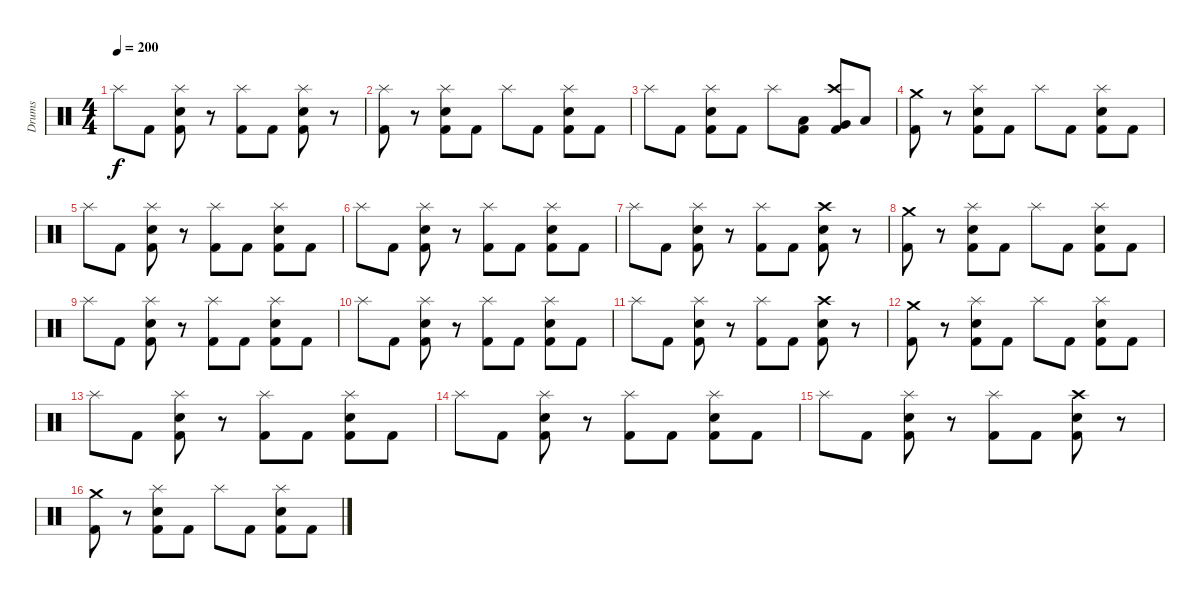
\track ("Drums" "Drums") {instrument percussion}
\staff {score}
\articulation defaults
\ts (4 4)
\tempo 200
\clef neutral
\ks c "Splash (hit)".8{dy f} "Kick (hit) 2".8
("Splash (hit)" "Snare (hit) 2" "Kick (hit) 2").8 r.8 ("Splash (hit)" "Kick (hit) 2").8 "Kick (hit) 2".8 ("Splash (hit)" "Snare (hit) 2" "Kick (hit) 2").8 r.8 |
("Splash (hit)" "Kick (hit) 2").8 r.8 ("Splash (hit)" "Snare (hit) 2" "Kick (hit) 2").8 "Kick (hit) 2".8 "Splash (hit)".8 "Kick (hit) 2".8 ("Splash (hit)" "Snare (hit) 2" "Kick (hit) 2").8 "Kick (hit) 2".8 |
"Splash (hit)".8 "Kick (hit) 2".8 ("Splash (hit)" "Snare (hit) 2" "Kick (hit) 2").8 "Kick (hit) 2".8 "Splash (hit)".8 ("Low Tom (hit)" "Kick (hit) 2").8 ("Crash high (hit)" "Very Low Tom (hit)" "Kick (hit) 2").8 "Low Floor Tom (hit)".8 |
("Crash medium (hit)" "Kick (hit) 2").8 r.8 ("Splash (hit)" "Snare (hit) 2" "Kick (hit) 2").8 "Kick (hit) 2".8 "Splash (hit)".8 "Kick (hit) 2".8 ("Splash (hit)" "Snare (hit) 2" "Kick (hit) 2").8 "Kick (hit) 2".8 |
"Splash (hit)".8 "Kick (hit) 2".8 ("Splash (hit)" "Snare (hit) 2" "Kick (hit) 2").8 r.8 ("Splash (hit)" "Kick (hit) 2").8 "Kick (hit) 2".8 ("Splash (hit)" "Snare (hit) 2" "Kick (hit) 2").8 "Kick (hit) 2".8 |
"Splash (hit)".8 "Kick (hit) 2".8 ("Splash (hit)" "Snare (hit) 2" "Kick (hit) 2").8 r.8 ("Splash (hit)" "Kick (hit) 2").8 "Kick (hit) 2".8 ("Splash (hit)" "Snare (hit) 2" "Kick (hit) 2").8 "Kick (hit) 2".8 |
"Splash (hit)".8 "Kick (hit) 2".8 ("Splash (hit)" "Snare (hit) 2" "Kick (hit) 2").8 r.8 ("Splash (hit)" "Kick (hit) 2").8 "Kick (hit) 2".8 ("Crash high (hit)" "Snare (hit) 2" "Kick (hit) 2").8 r.8 |
("Crash medium (hit)" "Kick (hit) 2").8 r.8 ("Splash (hit)" "Snare (hit) 2" "Kick (hit) 2").8 "Kick (hit) 2".8 "Splash (hit)".8 "Kick (hit) 2".8 ("Splash (hit)" "Snare (hit) 2" "Kick (hit) 2").8 "Kick (hit) 2".8 |
"Splash (hit)".8 "Kick (hit) 2".8 ("Splash (hit)" "Snare (hit) 2" "Kick (hit) 2").8 r.8 ("Splash (hit)" "Kick (hit) 2").8 "Kick (hit) 2".8 ("Splash (hit)" "Snare (hit) 2" "Kick (hit) 2").8 "Kick (hit) 2".8 |
"Splash (hit)".8 "Kick (hit) 2".8 ("Splash (hit)" "Snare (hit) 2" "Kick (hit) 2").8 r.8 ("Splash (hit)" "Kick (hit) 2").8 "Kick (hit) 2".8 ("Splash (hit)" "Snare (hit) 2" "Kick (hit) 2").8 "Kick (hit) 2".8 |
"Splash (hit)".8 "Kick (hit) 2".8 ("Splash (hit)" "Snare (hit) 2" "Kick (hit) 2").8 r.8 ("Splash (hit)" "Kick (hit) 2").8 "Kick (hit) 2".8 ("Crash high (hit)" "Snare (hit) 2" "Kick (hit) 2").8 r.8 |
("Crash medium (hit)" "Kick (hit) 2").8 r.8 ("Splash (hit)" "Snare (hit) 2" "Kick (hit) 2").8 "Kick (hit) 2".8 "Splash (hit)".8 "Kick (hit) 2".8 ("Splash (hit)" "Snare (hit) 2" "Kick (hit) 2").8 "Kick (hit) 2".8 |
"Splash (hit)".8 "Kick (hit) 2".8 ("Splash (hit)" "Snare (hit) 2" "Kick (hit) 2").8 r.8 ("Splash (hit)" "Kick (hit) 2").8 "Kick (hit) 2".8 ("Splash (hit)" "Snare (hit) 2" "Kick (hit) 2").8 "Kick (hit) 2".8 |
"Splash (hit)".8 "Kick (hit) 2".8 ("Splash (hit)" "Snare (hit) 2" "Kick (hit) 2").8 r.8 ("Splash (hit)" "Kick (hit) 2").8 "Kick (hit) 2".8 ("Splash (hit)" "Snare (hit) 2" "Kick (hit) 2").8 "Kick (hit) 2".8 |
"Splash (hit)".8 "Kick (hit) 2".8 ("Splash (hit)" "Snare (hit) 2" "Kick (hit) 2").8 r.8 ("Splash (hit)" "Kick (hit) 2").8 "Kick (hit) 2".8 ("Crash high (hit)" "Snare (hit) 2" "Kick (hit) 2").8 r.8 |
("Crash medium (hit)" "Kick (hit) 2").8 r.8 ("Splash (hit)" "Snare (hit) 2" "Kick (hit) 2").8 "Kick (hit) 2".8 "Splash (hit)".8 "Kick (hit) 2".8 ("Splash (hit)" "Snare (hit) 2" "Kick (hit) 2").8 "Kick (hit) 2".8
